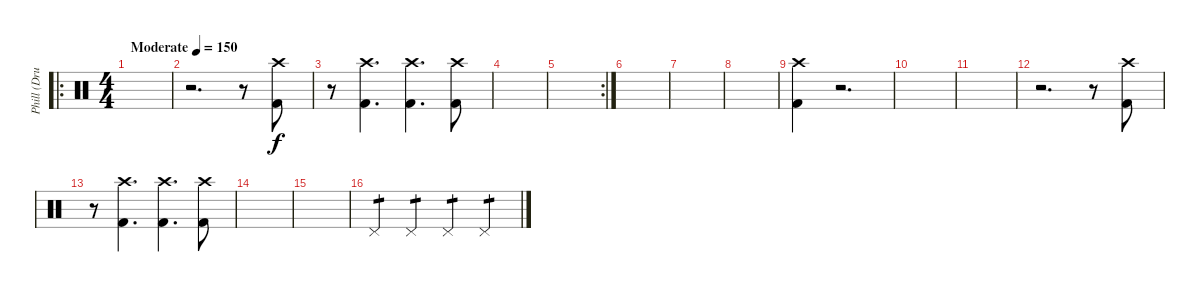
\track ("Phill (Drums)" "Phill (Dru") {instrument percussion}
\staff {score}
\articulation defaults
\ro
\ts (4 4)
\tempo (150 "Moderate")
\clef neutral
\ks c
|
r.2{d} r.8 ("Kick (hit) 2" "Crash high (hit)").8 |
r.8 ("Kick (hit) 2" "Crash high (hit)").4{d} ("Kick (hit) 2" "Crash high (hit)").4{d} ("Kick (hit) 2" "Crash high (hit)").8 |
|
\rc 2
|
|
|
|
("Kick (hit) 2" "Crash high (hit)").4 r.2{d} |
|
|
r.2{d} r.8 ("Kick (hit) 2" "Crash high (hit)").8 |
r.8 ("Kick (hit) 2" "Crash high (hit)").4{d} ("Kick (hit) 2" "Crash high (hit)").4{d} ("Kick (hit) 2" "Crash high (hit)").8 |
|
|
"Pedal Hi-Hat (hit)".4{tp 1} "Pedal Hi-Hat (hit)".4{tp 1} "Pedal Hi-Hat (hit)".4{tp 1} "Pedal Hi-Hat (hit)".4{tp 1}
